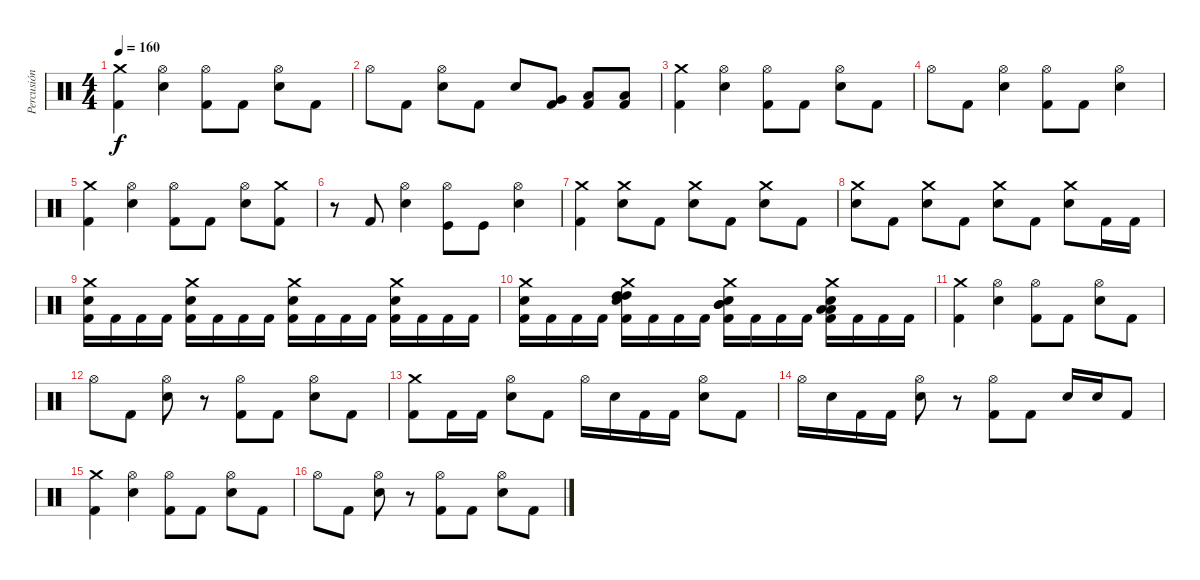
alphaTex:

\track ("Percusión" "Percusión") {instrument percussion}
\staff {score}
\articulation defaults
\ts (4 4)
\tempo 160
\clef neutral
\ks c
("Crash medium (hit)" "Kick (hit) 2").4{dy f} ("Hi-Hat (open)" "Snare (hit) 2").4 ("Hi-Hat (open)" "Kick (hit) 2").8 "Kick (hit) 2".8 ("Hi-Hat (open)" "Snare (hit) 2").8 "Kick (hit) 2".8 |
"Hi-Hat (open)".8 "Kick (hit) 2".8 ("Hi-Hat (open)" "Snare (hit) 2").8 "Kick (hit) 2".8 "Snare (hit) 2".8 ("Very Low Tom (hit)" "Kick (hit) 2").8 ("Low Floor Tom (hit)" "Kick (hit) 2").8 ("Low Floor Tom (hit)" "Kick (hit) 2").8 |
("Crash medium (hit)" "Kick (hit) 2").4 ("Hi-Hat (open)" "Snare (hit) 2").4 ("Hi-Hat (open)" "Kick (hit) 2").8 "Kick (hit) 2".8 ("Hi-Hat (open)" "Snare (hit) 2").8 "Kick (hit) 2".8 |
"Hi-Hat (open)".8 "Kick (hit) 2".8 ("Hi-Hat (open)" "Snare (hit) 2").4 ("Hi-Hat (open)" "Kick (hit) 2").8 "Kick (hit) 2".8 ("Hi-Hat (open)" "Snare (hit) 2").4 |
("Crash medium (hit)" "Kick (hit) 2").4 ("Hi-Hat (open)" "Snare (hit) 2").4 ("Hi-Hat (open)" "Kick (hit) 2").8 "Kick (hit) 2".8 ("Hi-Hat (open)" "Snare (hit) 2").8 ("Crash medium (hit)" "Kick (hit) 2").8 |
r.8 "Kick (hit) 2".8 ("Hi-Hat (open)" "Snare (hit) 2").4 ("Hi-Hat (open)" "Kick (hit)").8 "Kick (hit)".8 ("Hi-Hat (open)" "Snare (hit) 2").4 |
("Crash medium (hit)" "Kick (hit) 2").4 ("Crash medium (hit)" "Snare (hit) 2").8 "Kick (hit) 2".8 ("Crash medium (hit)" "Snare (hit) 2").8 "Kick (hit) 2".8 ("Crash medium (hit)" "Snare (hit) 2").8 "Kick (hit) 2".8 |
("Crash medium (hit)" "Snare (hit) 2").8 "Kick (hit) 2".8 ("Crash medium (hit)" "Snare (hit) 2").8 "Kick (hit) 2".8 ("Crash medium (hit)" "Snare (hit) 2").8 "Kick (hit) 2".8 ("Crash medium (hit)" "Snare (hit) 2").8 "Kick (hit) 2".16 "Kick (hit) 2".16 |
("Crash medium (hit)" "Snare (hit) 2" "Kick (hit) 2").16 "Kick (hit) 2".16 "Kick (hit) 2".16 "Kick (hit) 2".16 ("Crash medium (hit)" "Snare (hit) 2" "Kick (hit) 2").16 "Kick (hit) 2".16 "Kick (hit) 2".16 "Kick (hit) 2".16 ("Crash medium (hit)" "Snare (hit) 2" "Kick (hit) 2").16 "Kick (hit) 2".16 "Kick (hit) 2".16 "Kick (hit) 2".16 ("Crash medium (hit)" "Snare (hit) 2" "Kick (hit) 2").16 "Kick (hit) 2".16 "Kick (hit) 2".16 "Kick (hit) 2".16 |
("Crash medium (hit)" "Snare (hit) 2" "Kick (hit) 2").16 "Kick (hit) 2".16 "Kick (hit) 2".16 "Kick (hit) 2".16 ("High Tom (hit)" "High Tom (hit)" "Crash medium (hit)" "Snare (hit) 2" "Kick (hit) 2").16 "Kick (hit) 2".16 "Kick (hit) 2".16 "Kick (hit) 2".16 ("Mid Tom (hit)" "Mid Tom (hit)" "Snare (hit) 2" "Crash medium (hit)" "Kick (hit) 2").16 "Kick (hit) 2".16 "Kick (hit) 2".16 "Kick (hit) 2".16 ("Low Tom (hit)" "Low Tom (hit)" "Snare (hit) 2" "Crash medium (hit)" "Kick (hit) 2").16 "Kick (hit) 2".16 "Kick (hit) 2".16 "Kick (hit) 2".16 |
("Crash medium (hit)" "Kick (hit) 2").4 ("Hi-Hat (open)" "Snare (hit) 2").4 ("Hi-Hat (open)" "Kick (hit) 2").8 "Kick (hit) 2".8 ("Hi-Hat (open)" "Snare (hit) 2").8 "Kick (hit) 2".8 |
"Hi-Hat (open)".8 "Kick (hit) 2".8 ("Hi-Hat (open)" "Snare (hit) 2").8 r.8 ("Hi-Hat (open)" "Kick (hit) 2").8 "Kick (hit) 2".8 ("Hi-Hat (open)" "Snare (hit) 2").8 "Kick (hit) 2".8 |
("Crash medium (hit)" "Kick (hit) 2").8 "Kick (hit) 2".16 "Kick (hit) 2".16 ("Hi-Hat (open)" "Snare (hit) 2").8 "Kick (hit) 2".8 "Hi-Hat (open)".16 "Snare (hit) 2".16 "Kick (hit) 2".16 "Kick (hit) 2".16 ("Hi-Hat (open)" "Snare (hit) 2").8 "Kick (hit) 2".8 |
"Hi-Hat (open)".16 "Snare (hit) 2".16 "Kick (hit) 2".16 "Kick (hit) 2".16 ("Hi-Hat (open)" "Snare (hit) 2").8 r.8 ("Hi-Hat (open)" "Kick (hit) 2").8 "Kick (hit) 2".8 "Snare (hit) 2".16 "Snare (hit) 2".16 "Kick (hit) 2".8 |
("Crash medium (hit)" "Kick (hit) 2").4 ("Hi-Hat (open)" "Snare (hit) 2").4 ("Hi-Hat (open)" "Kick (hit) 2").8 "Kick (hit) 2".8 ("Hi-Hat (open)" "Snare (hit) 2").8 "Kick (hit) 2".8 |
"Hi-Hat (open)".8 "Kick (hit) 2".8 ("Hi-Hat (open)" "Snare (hit) 2").8 r.8 ("Hi-Hat (open)" "Kick (hit) 2").8 "Kick (hit) 2".8 ("Hi-Hat (open)" "Snare (hit) 2").8 "Kick (hit) 2".8
